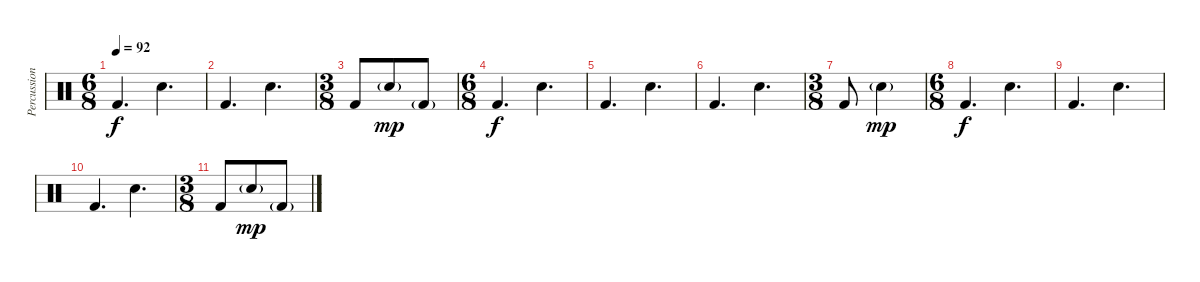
\track ("Percussion" "Percussion") {instrument percussion}
\staff {score}
\articulation defaults
\ts (6 8)
\tempo 92
\clef neutral
\ks c "Kick (hit) 2".4{d dy f} "Snare (hit) 2".4{d}
|
"Kick (hit) 2".4{d} "Snare (hit) 2".4{d} |
\ts (3 8)
"Kick (hit) 2".8 "Snare (hit) 2"{g}.8{dy mp} "Kick (hit) 2"{g}.8 |
\ts (6 8)
"Kick (hit) 2".4{d dy f} "Snare (hit) 2".4{d} |
"Kick (hit) 2".4{d} "Snare (hit) 2".4{d} |
"Kick (hit) 2".4{d} "Snare (hit) 2".4{d} |
\ts (3 8)
"Kick (hit) 2".8 "Snare (hit) 2"{g}.4{dy mp} |
\ts (6 8)
"Kick (hit) 2".4{d dy f} "Snare (hit) 2".4{d} |
"Kick (hit) 2".4{d} "Snare (hit) 2".4{d} |
"Kick (hit) 2".4{d} "Snare (hit) 2".4{d} |
\ts (3 8)
"Kick (hit) 2".8 "Snare (hit) 2"{g}.8{dy mp} "Kick (hit) 2"{g}.8
